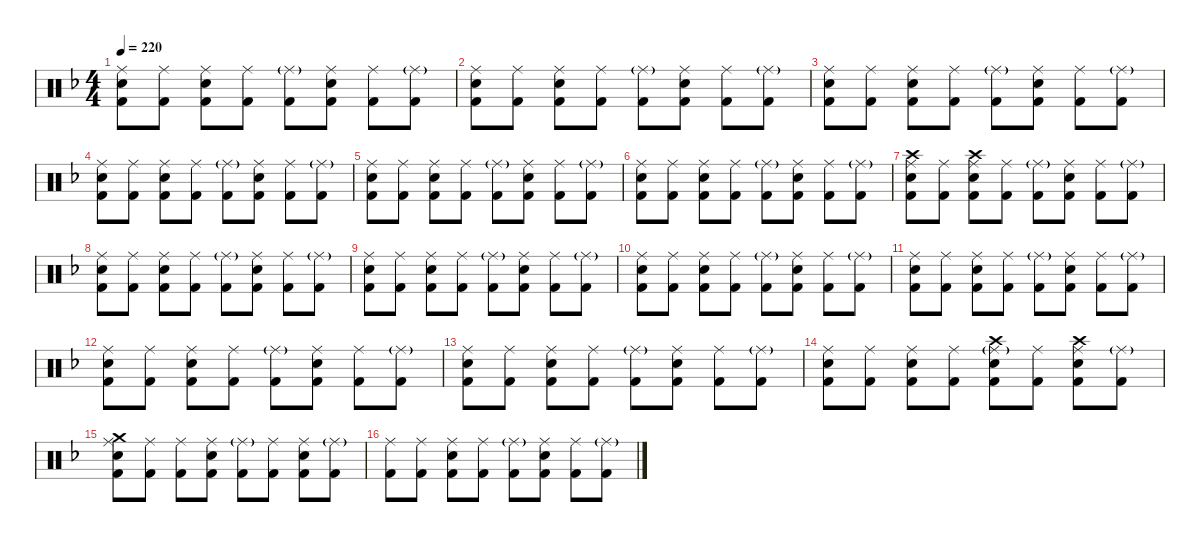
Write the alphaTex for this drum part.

\hideDynamics
\bracketExtendMode nobrackets
\singleTrackTrackNamePolicy hidden
\multiTrackTrackNamePolicy hidden
\firstSystemTrackNameMode fullname
\firstSystemTrackNameOrientation horizontal
\otherSystemsTrackNameOrientation horizontal
\track ("Drumkit" "Drums") {instrument percussion}
\staff {score}
\articulation defaults
\ts (4 4)
\tempo 220
\clef neutral
\ks dminor
("Ride (middle)"{acc forcenatural} "Snare (hit) 2"{acc forcenatural} "Kick (hit) 2"{acc forcenatural}).8{dy mf beam Down} ("Ride (middle)"{acc forcenatural} "Kick (hit) 2"{acc forcenatural}).8{beam Down} ("Ride (middle)"{acc forcenatural} "Snare (hit) 2"{acc forcenatural} "Kick (hit) 2"{acc forcenatural}).8{beam Down} ("Ride (middle)"{acc forcenatural} "Kick (hit) 2"{acc forcenatural}).8{beam Down} ("Ride (middle)"{g acc forcenatural} "Kick (hit) 2"{acc forcenatural}).8{dy f beam Down} ("Ride (middle)"{acc forcenatural} "Snare (hit) 2"{acc forcenatural} "Kick (hit) 2"{acc forcenatural}).8{dy mf beam Down} ("Ride (middle)"{acc forcenatural} "Kick (hit) 2"{acc forcenatural}).8{beam Down} ("Ride (middle)"{g acc forcenatural} "Kick (hit) 2"{acc forcenatural}).8{dy f beam Down} |
("Ride (middle)"{acc forcenatural} "Snare (hit) 2"{acc forcenatural} "Kick (hit) 2"{acc forcenatural}).8{dy mf beam Down} ("Ride (middle)"{acc forcenatural} "Kick (hit) 2"{acc forcenatural}).8{beam Down} ("Ride (middle)"{acc forcenatural} "Snare (hit) 2"{acc forcenatural} "Kick (hit) 2"{acc forcenatural}).8{beam Down} ("Ride (middle)"{acc forcenatural} "Kick (hit) 2"{acc forcenatural}).8{beam Down} ("Ride (middle)"{g acc forcenatural} "Kick (hit) 2"{acc forcenatural}).8{dy f beam Down} ("Ride (middle)"{acc forcenatural} "Snare (hit) 2"{acc forcenatural} "Kick (hit) 2"{acc forcenatural}).8{dy mf beam Down} ("Ride (middle)"{acc forcenatural} "Kick (hit) 2"{acc forcenatural}).8{beam Down} ("Ride (middle)"{g acc forcenatural} "Kick (hit) 2"{acc forcenatural}).8{dy f beam Down} |
("Ride (middle)"{acc forcenatural} "Snare (hit) 2"{acc forcenatural} "Kick (hit) 2"{acc forcenatural}).8{dy mf beam Down} ("Ride (middle)"{acc forcenatural} "Kick (hit) 2"{acc forcenatural}).8{beam Down} ("Ride (middle)"{acc forcenatural} "Snare (hit) 2"{acc forcenatural} "Kick (hit) 2"{acc forcenatural}).8{beam Down} ("Ride (middle)"{acc forcenatural} "Kick (hit) 2"{acc forcenatural}).8{beam Down} ("Ride (middle)"{g acc forcenatural} "Kick (hit) 2"{acc forcenatural}).8{dy f beam Down} ("Ride (middle)"{acc forcenatural} "Snare (hit) 2"{acc forcenatural} "Kick (hit) 2"{acc forcenatural}).8{dy mf beam Down} ("Ride (middle)"{acc forcenatural} "Kick (hit) 2"{acc forcenatural}).8{beam Down} ("Ride (middle)"{g acc forcenatural} "Kick (hit) 2"{acc forcenatural}).8{dy f beam Down} |
("Ride (middle)"{acc forcenatural} "Snare (hit) 2"{acc forcenatural} "Kick (hit) 2"{acc forcenatural}).8{dy mf beam Down} ("Ride (middle)"{acc forcenatural} "Kick (hit) 2"{acc forcenatural}).8{beam Down} ("Ride (middle)"{acc forcenatural} "Snare (hit) 2"{acc forcenatural} "Kick (hit) 2"{acc forcenatural}).8{beam Down} ("Ride (middle)"{acc forcenatural} "Kick (hit) 2"{acc forcenatural}).8{beam Down} ("Ride (middle)"{g acc forcenatural} "Kick (hit) 2"{acc forcenatural}).8{dy f beam Down} ("Ride (middle)"{acc forcenatural} "Snare (hit) 2"{acc forcenatural} "Kick (hit) 2"{acc forcenatural}).8{dy mf beam Down} ("Ride (middle)"{acc forcenatural} "Kick (hit) 2"{acc forcenatural}).8{beam Down} ("Ride (middle)"{g acc forcenatural} "Kick (hit) 2"{acc forcenatural}).8{dy f beam Down} |
("Ride (middle)"{acc forcenatural} "Snare (hit) 2"{acc forcenatural} "Kick (hit) 2"{acc forcenatural}).8{dy mf beam Down} ("Ride (middle)"{acc forcenatural} "Kick (hit) 2"{acc forcenatural}).8{beam Down} ("Ride (middle)"{acc forcenatural} "Snare (hit) 2"{acc forcenatural} "Kick (hit) 2"{acc forcenatural}).8{beam Down} ("Ride (middle)"{acc forcenatural} "Kick (hit) 2"{acc forcenatural}).8{beam Down} ("Ride (middle)"{g acc forcenatural} "Kick (hit) 2"{acc forcenatural}).8{dy f beam Down} ("Ride (middle)"{acc forcenatural} "Snare (hit) 2"{acc forcenatural} "Kick (hit) 2"{acc forcenatural}).8{dy mf beam Down} ("Ride (middle)"{acc forcenatural} "Kick (hit) 2"{acc forcenatural}).8{beam Down} ("Ride (middle)"{g acc forcenatural} "Kick (hit) 2"{acc forcenatural}).8{dy f beam Down} |
("Ride (middle)"{acc forcenatural} "Snare (hit) 2"{acc forcenatural} "Kick (hit) 2"{acc forcenatural}).8{dy mf beam Down} ("Ride (middle)"{acc forcenatural} "Kick (hit) 2"{acc forcenatural}).8{beam Down} ("Ride (middle)"{acc forcenatural} "Snare (hit) 2"{acc forcenatural} "Kick (hit) 2"{acc forcenatural}).8{beam Down} ("Ride (middle)"{acc forcenatural} "Kick (hit) 2"{acc forcenatural}).8{beam Down} ("Ride (middle)"{g acc forcenatural} "Kick (hit) 2"{acc forcenatural}).8{dy f beam Down} ("Ride (middle)"{acc forcenatural} "Snare (hit) 2"{acc forcenatural} "Kick (hit) 2"{acc forcenatural}).8{dy mf beam Down} ("Ride (middle)"{acc forcenatural} "Kick (hit) 2"{acc forcenatural}).8{beam Down} ("Ride (middle)"{g acc forcenatural} "Kick (hit) 2"{acc forcenatural}).8{dy f beam Down} |
("Crash high (hit)"{acc forcenatural} "Ride (middle)"{acc forcenatural} "Snare (hit) 2"{acc forcenatural} "Kick (hit) 2"{acc forcenatural}).8{beam Down} ("Ride (middle)"{acc forcenatural} "Kick (hit) 2"{acc forcenatural}).8{dy mf beam Down} ("Crash high (hit)"{acc forcenatural} "Ride (middle)"{acc forcenatural} "Snare (hit) 2"{acc forcenatural} "Kick (hit) 2"{acc forcenatural}).8{dy f beam Down} ("Ride (middle)"{acc forcenatural} "Kick (hit) 2"{acc forcenatural}).8{dy mf beam Down} ("Ride (middle)"{g acc forcenatural} "Kick (hit) 2"{acc forcenatural}).8{dy f beam Down} ("Ride (middle)"{acc forcenatural} "Snare (hit) 2"{acc forcenatural} "Kick (hit) 2"{acc forcenatural}).8{dy mf beam Down} ("Ride (middle)"{acc forcenatural} "Kick (hit) 2"{acc forcenatural}).8{beam Down} ("Ride (middle)"{g acc forcenatural} "Kick (hit) 2"{acc forcenatural}).8{dy f beam Down} |
("Ride (middle)"{acc forcenatural} "Snare (hit) 2"{acc forcenatural} "Kick (hit) 2"{acc forcenatural}).8{dy mf beam Down} ("Ride (middle)"{acc forcenatural} "Kick (hit) 2"{acc forcenatural}).8{beam Down} ("Ride (middle)"{acc forcenatural} "Snare (hit) 2"{acc forcenatural} "Kick (hit) 2"{acc forcenatural}).8{beam Down} ("Ride (middle)"{acc forcenatural} "Kick (hit) 2"{acc forcenatural}).8{beam Down} ("Ride (middle)"{g acc forcenatural} "Kick (hit) 2"{acc forcenatural}).8{dy f beam Down} ("Ride (middle)"{acc forcenatural} "Snare (hit) 2"{acc forcenatural} "Kick (hit) 2"{acc forcenatural}).8{dy mf beam Down} ("Ride (middle)"{acc forcenatural} "Kick (hit) 2"{acc forcenatural}).8{beam Down} ("Ride (middle)"{g acc forcenatural} "Kick (hit) 2"{acc forcenatural}).8{dy f beam Down} |
("Ride (middle)"{acc forcenatural} "Snare (hit) 2"{acc forcenatural} "Kick (hit) 2"{acc forcenatural}).8{dy mf beam Down} ("Ride (middle)"{acc forcenatural} "Kick (hit) 2"{acc forcenatural}).8{beam Down} ("Ride (middle)"{acc forcenatural} "Snare (hit) 2"{acc forcenatural} "Kick (hit) 2"{acc forcenatural}).8{beam Down} ("Ride (middle)"{acc forcenatural} "Kick (hit) 2"{acc forcenatural}).8{beam Down} ("Ride (middle)"{g acc forcenatural} "Kick (hit) 2"{acc forcenatural}).8{dy f beam Down} ("Ride (middle)"{acc forcenatural} "Snare (hit) 2"{acc forcenatural} "Kick (hit) 2"{acc forcenatural}).8{dy mf beam Down} ("Ride (middle)"{acc forcenatural} "Kick (hit) 2"{acc forcenatural}).8{beam Down} ("Ride (middle)"{g acc forcenatural} "Kick (hit) 2"{acc forcenatural}).8{dy f beam Down} |
("Ride (middle)"{acc forcenatural} "Snare (hit) 2"{acc forcenatural} "Kick (hit) 2"{acc forcenatural}).8{dy mf beam Down} ("Ride (middle)"{acc forcenatural} "Kick (hit) 2"{acc forcenatural}).8{beam Down} ("Ride (middle)"{acc forcenatural} "Snare (hit) 2"{acc forcenatural} "Kick (hit) 2"{acc forcenatural}).8{beam Down} ("Ride (middle)"{acc forcenatural} "Kick (hit) 2"{acc forcenatural}).8{beam Down} ("Ride (middle)"{g acc forcenatural} "Kick (hit) 2"{acc forcenatural}).8{dy f beam Down} ("Ride (middle)"{acc forcenatural} "Snare (hit) 2"{acc forcenatural} "Kick (hit) 2"{acc forcenatural}).8{dy mf beam Down} ("Ride (middle)"{acc forcenatural} "Kick (hit) 2"{acc forcenatural}).8{beam Down} ("Ride (middle)"{g acc forcenatural} "Kick (hit) 2"{acc forcenatural}).8{dy f beam Down} |
("Ride (middle)"{acc forcenatural} "Snare (hit) 2"{acc forcenatural} "Kick (hit) 2"{acc forcenatural}).8{dy mf beam Down} ("Ride (middle)"{acc forcenatural} "Kick (hit) 2"{acc forcenatural}).8{beam Down} ("Ride (middle)"{acc forcenatural} "Snare (hit) 2"{acc forcenatural} "Kick (hit) 2"{acc forcenatural}).8{beam Down} ("Ride (middle)"{acc forcenatural} "Kick (hit) 2"{acc forcenatural}).8{beam Down} ("Ride (middle)"{g acc forcenatural} "Kick (hit) 2"{acc forcenatural}).8{dy f beam Down} ("Ride (middle)"{acc forcenatural} "Snare (hit) 2"{acc forcenatural} "Kick (hit) 2"{acc forcenatural}).8{dy mf beam Down} ("Ride (middle)"{acc forcenatural} "Kick (hit) 2"{acc forcenatural}).8{beam Down} ("Ride (middle)"{g acc forcenatural} "Kick (hit) 2"{acc forcenatural}).8{dy f beam Down} |
("Ride (middle)"{acc forcenatural} "Snare (hit) 2"{acc forcenatural} "Kick (hit) 2"{acc forcenatural}).8{dy mf beam Down} ("Ride (middle)"{acc forcenatural} "Kick (hit) 2"{acc forcenatural}).8{beam Down} ("Ride (middle)"{acc forcenatural} "Snare (hit) 2"{acc forcenatural} "Kick (hit) 2"{acc forcenatural}).8{beam Down} ("Ride (middle)"{acc forcenatural} "Kick (hit) 2"{acc forcenatural}).8{beam Down} ("Ride (middle)"{g acc forcenatural} "Kick (hit) 2"{acc forcenatural}).8{dy f beam Down} ("Ride (middle)"{acc forcenatural} "Snare (hit) 2"{acc forcenatural} "Kick (hit) 2"{acc forcenatural}).8{dy mf beam Down} ("Ride (middle)"{acc forcenatural} "Kick (hit) 2"{acc forcenatural}).8{beam Down} ("Ride (middle)"{g acc forcenatural} "Kick (hit) 2"{acc forcenatural}).8{dy f beam Down} |
("Ride (middle)"{acc forcenatural} "Snare (hit) 2"{acc forcenatural} "Kick (hit) 2"{acc forcenatural}).8{dy mf beam Down} ("Ride (middle)"{acc forcenatural} "Kick (hit) 2"{acc forcenatural}).8{beam Down} ("Ride (middle)"{acc forcenatural} "Snare (hit) 2"{acc forcenatural} "Kick (hit) 2"{acc forcenatural}).8{beam Down} ("Ride (middle)"{acc forcenatural} "Kick (hit) 2"{acc forcenatural}).8{beam Down} ("Ride (middle)"{g acc forcenatural} "Kick (hit) 2"{acc forcenatural}).8{dy f beam Down} ("Ride (middle)"{acc forcenatural} "Snare (hit) 2"{acc forcenatural} "Kick (hit) 2"{acc forcenatural}).8{dy mf beam Down} ("Ride (middle)"{acc forcenatural} "Kick (hit) 2"{acc forcenatural}).8{beam Down} ("Ride (middle)"{g acc forcenatural} "Kick (hit) 2"{acc forcenatural}).8{dy f beam Down} |
("Ride (middle)"{acc forcenatural} "Snare (hit) 2"{acc forcenatural} "Kick (hit) 2"{acc forcenatural}).8{dy mf beam Down} ("Ride (middle)"{acc forcenatural} "Kick (hit) 2"{acc forcenatural}).8{beam Down} ("Ride (middle)"{acc forcenatural} "Snare (hit) 2"{acc forcenatural} "Kick (hit) 2"{acc forcenatural}).8{beam Down} ("Ride (middle)"{acc forcenatural} "Kick (hit) 2"{acc forcenatural}).8{beam Down} ("Crash high (hit)"{acc forcenatural} "Ride (middle)"{g acc forcenatural} "Snare (hit) 2"{acc forcenatural} "Kick (hit) 2"{acc forcenatural}).8{dy f beam Down} ("Ride (middle)"{acc forcenatural} "Kick (hit) 2"{acc forcenatural}).8{dy mf beam Down} ("Crash high (hit)"{acc forcenatural} "Ride (middle)"{acc forcenatural} "Snare (hit) 2"{acc forcenatural} "Kick (hit) 2"{acc forcenatural}).8{dy f beam Down} ("Ride (middle)"{g acc forcenatural} "Kick (hit) 2"{acc forcenatural}).8{beam Down} |
("Crash medium (hit)"{acc forcenatural} "Ride (middle)"{acc forcenatural} "Snare (hit) 2"{acc forcenatural} "Kick (hit) 2"{acc forcenatural}).8{beam Down} ("Ride (middle)"{acc forcenatural} "Kick (hit) 2"{acc forcenatural}).8{dy mf beam Down} ("Ride (middle)"{acc forcenatural} "Kick (hit) 2"{acc forcenatural}).8{beam Down} ("Ride (middle)"{acc forcenatural} "Snare (hit) 2"{acc forcenatural} "Kick (hit) 2"{acc forcenatural}).8{beam Down} ("Ride (middle)"{g acc forcenatural} "Kick (hit) 2"{acc forcenatural}).8{dy f beam Down} ("Ride (middle)"{acc forcenatural} "Kick (hit) 2"{acc forcenatural}).8{dy mf beam Down} ("Ride (middle)"{acc forcenatural} "Snare (hit) 2"{acc forcenatural} "Kick (hit) 2"{acc forcenatural}).8{beam Down} ("Ride (middle)"{g acc forcenatural} "Kick (hit) 2"{acc forcenatural}).8{dy f beam Down} |
("Ride (middle)"{acc forcenatural} "Kick (hit) 2"{acc forcenatural}).8{dy mf beam Down} ("Ride (middle)"{acc forcenatural} "Kick (hit) 2"{acc forcenatural}).8{beam Down} ("Ride (middle)"{acc forcenatural} "Snare (hit) 2"{acc forcenatural} "Kick (hit) 2"{acc forcenatural}).8{beam Down} ("Ride (middle)"{acc forcenatural} "Kick (hit) 2"{acc forcenatural}).8{beam Down} ("Ride (middle)"{g acc forcenatural} "Kick (hit) 2"{acc forcenatural}).8{dy f beam Down} ("Ride (middle)"{acc forcenatural} "Snare (hit) 2"{acc forcenatural} "Kick (hit) 2"{acc forcenatural}).8{dy mf beam Down} ("Ride (middle)"{acc forcenatural} "Kick (hit) 2"{acc forcenatural}).8{beam Down} ("Ride (middle)"{g acc forcenatural} "Kick (hit) 2"{acc forcenatural}).8{dy f beam Down}
